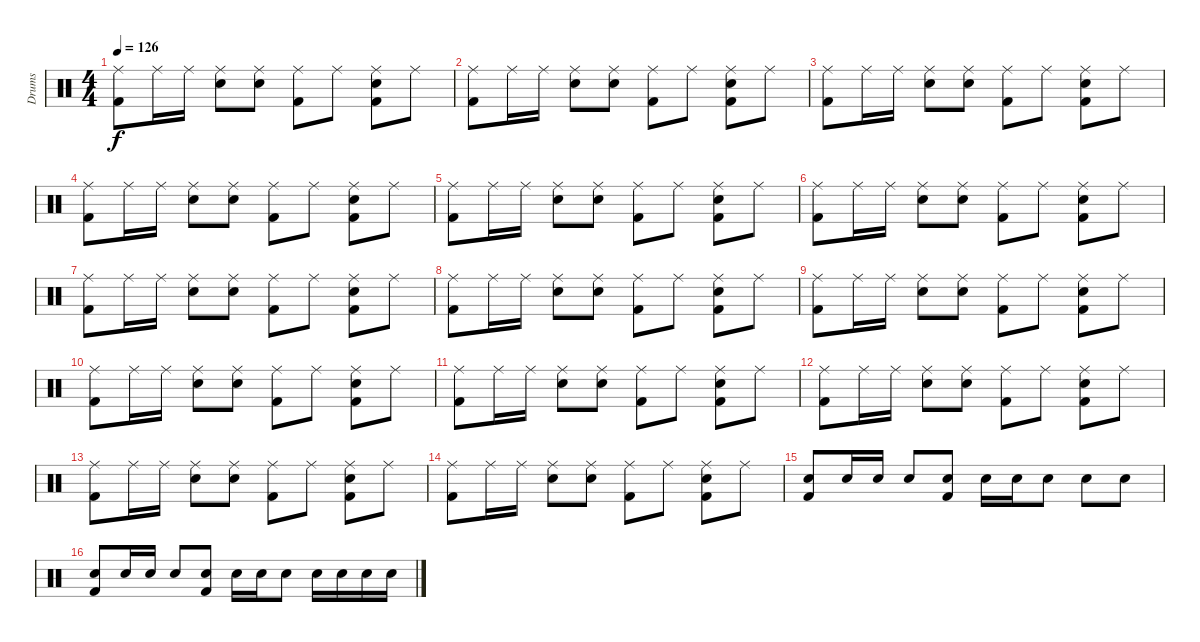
\track ("Drums" "Drums") {instrument percussion}
\staff {score}
\articulation defaults
\ts (4 4)
\tempo 126
\clef neutral
\ks c
("Ride (middle)" "Kick (hit) 2").8{dy f} "Ride (middle)".16 "Ride (middle)".16 ("Ride (middle)" "Snare (hit) 2").8 ("Ride (middle)" "Snare (hit) 2").8 ("Ride (middle)" "Kick (hit) 2").8 "Ride (middle)".8 ("Ride (middle)" "Snare (hit) 2" "Kick (hit) 2").8 "Ride (middle)".8 |
("Ride (middle)" "Kick (hit) 2").8 "Ride (middle)".16 "Ride (middle)".16 ("Ride (middle)" "Snare (hit) 2").8 ("Ride (middle)" "Snare (hit) 2").8 ("Ride (middle)" "Kick (hit) 2").8 "Ride (middle)".8 ("Ride (middle)" "Snare (hit) 2" "Kick (hit) 2").8 "Ride (middle)".8 |
("Ride (middle)" "Kick (hit) 2").8 "Ride (middle)".16 "Ride (middle)".16 ("Ride (middle)" "Snare (hit) 2").8 ("Ride (middle)" "Snare (hit) 2").8 ("Ride (middle)" "Kick (hit) 2").8 "Ride (middle)".8 ("Ride (middle)" "Snare (hit) 2" "Kick (hit) 2").8 "Ride (middle)".8 |
("Ride (middle)" "Kick (hit) 2").8 "Ride (middle)".16 "Ride (middle)".16 ("Ride (middle)" "Snare (hit) 2").8 ("Ride (middle)" "Snare (hit) 2").8 ("Ride (middle)" "Kick (hit) 2").8 "Ride (middle)".8 ("Ride (middle)" "Snare (hit) 2" "Kick (hit) 2").8 "Ride (middle)".8 |
("Ride (middle)" "Kick (hit) 2").8 "Ride (middle)".16 "Ride (middle)".16 ("Ride (middle)" "Snare (hit) 2").8 ("Ride (middle)" "Snare (hit) 2").8 ("Ride (middle)" "Kick (hit) 2").8 "Ride (middle)".8 ("Ride (middle)" "Snare (hit) 2" "Kick (hit) 2").8 "Ride (middle)".8 |
("Ride (middle)" "Kick (hit) 2").8 "Ride (middle)".16 "Ride (middle)".16 ("Ride (middle)" "Snare (hit) 2").8 ("Ride (middle)" "Snare (hit) 2").8 ("Ride (middle)" "Kick (hit) 2").8 "Ride (middle)".8 ("Ride (middle)" "Snare (hit) 2" "Kick (hit) 2").8 "Ride (middle)".8 |
("Ride (middle)" "Kick (hit) 2").8 "Ride (middle)".16 "Ride (middle)".16 ("Ride (middle)" "Snare (hit) 2").8 ("Ride (middle)" "Snare (hit) 2").8 ("Ride (middle)" "Kick (hit) 2").8 "Ride (middle)".8 ("Ride (middle)" "Snare (hit) 2" "Kick (hit) 2").8 "Ride (middle)".8 |
("Ride (middle)" "Kick (hit) 2").8 "Ride (middle)".16 "Ride (middle)".16 ("Ride (middle)" "Snare (hit) 2").8 ("Ride (middle)" "Snare (hit) 2").8 ("Ride (middle)" "Kick (hit) 2").8 "Ride (middle)".8 ("Ride (middle)" "Snare (hit) 2" "Kick (hit) 2").8 "Ride (middle)".8 |
("Ride (middle)" "Kick (hit) 2").8 "Ride (middle)".16 "Ride (middle)".16 ("Ride (middle)" "Snare (hit) 2").8 ("Ride (middle)" "Snare (hit) 2").8 ("Ride (middle)" "Kick (hit) 2").8 "Ride (middle)".8 ("Ride (middle)" "Snare (hit) 2" "Kick (hit) 2").8 "Ride (middle)".8 |
("Ride (middle)" "Kick (hit) 2").8 "Ride (middle)".16 "Ride (middle)".16 ("Ride (middle)" "Snare (hit) 2").8 ("Ride (middle)" "Snare (hit) 2").8 ("Ride (middle)" "Kick (hit) 2").8 "Ride (middle)".8 ("Ride (middle)" "Snare (hit) 2" "Kick (hit) 2").8 "Ride (middle)".8 |
("Ride (middle)" "Kick (hit) 2").8 "Ride (middle)".16 "Ride (middle)".16 ("Ride (middle)" "Snare (hit) 2").8 ("Ride (middle)" "Snare (hit) 2").8 ("Ride (middle)" "Kick (hit) 2").8 "Ride (middle)".8 ("Ride (middle)" "Snare (hit) 2" "Kick (hit) 2").8 "Ride (middle)".8 |
("Ride (middle)" "Kick (hit) 2").8 "Ride (middle)".16 "Ride (middle)".16 ("Ride (middle)" "Snare (hit) 2").8 ("Ride (middle)" "Snare (hit) 2").8 ("Ride (middle)" "Kick (hit) 2").8 "Ride (middle)".8 ("Ride (middle)" "Snare (hit) 2" "Kick (hit) 2").8 "Ride (middle)".8 |
("Ride (middle)" "Kick (hit) 2").8 "Ride (middle)".16 "Ride (middle)".16 ("Ride (middle)" "Snare (hit) 2").8 ("Ride (middle)" "Snare (hit) 2").8 ("Ride (middle)" "Kick (hit) 2").8 "Ride (middle)".8 ("Ride (middle)" "Snare (hit) 2" "Kick (hit) 2").8 "Ride (middle)".8 |
("Ride (middle)" "Kick (hit) 2").8 "Ride (middle)".16 "Ride (middle)".16 ("Ride (middle)" "Snare (hit) 2").8 ("Ride (middle)" "Snare (hit) 2").8 ("Ride (middle)" "Kick (hit) 2").8 "Ride (middle)".8 ("Ride (middle)" "Snare (hit) 2" "Kick (hit) 2").8 "Ride (middle)".8 |
("Snare (hit) 2" "Kick (hit) 2").8 "Snare (hit) 2".16 "Snare (hit) 2".16 "Snare (hit) 2".8 ("Snare (hit) 2" "Kick (hit) 2").8 "Snare (hit) 2".16 "Snare (hit) 2".16 "Snare (hit) 2".8 "Snare (hit) 2".8 "Snare (hit) 2".8 |
("Snare (hit) 2" "Kick (hit) 2").8 "Snare (hit) 2".16 "Snare (hit) 2".16 "Snare (hit) 2".8 ("Snare (hit) 2" "Kick (hit) 2").8 "Snare (hit) 2".16 "Snare (hit) 2".16 "Snare (hit) 2".8 "Snare (hit) 2".16 "Snare (hit) 2".16 "Snare (hit) 2".16 "Snare (hit) 2".16
